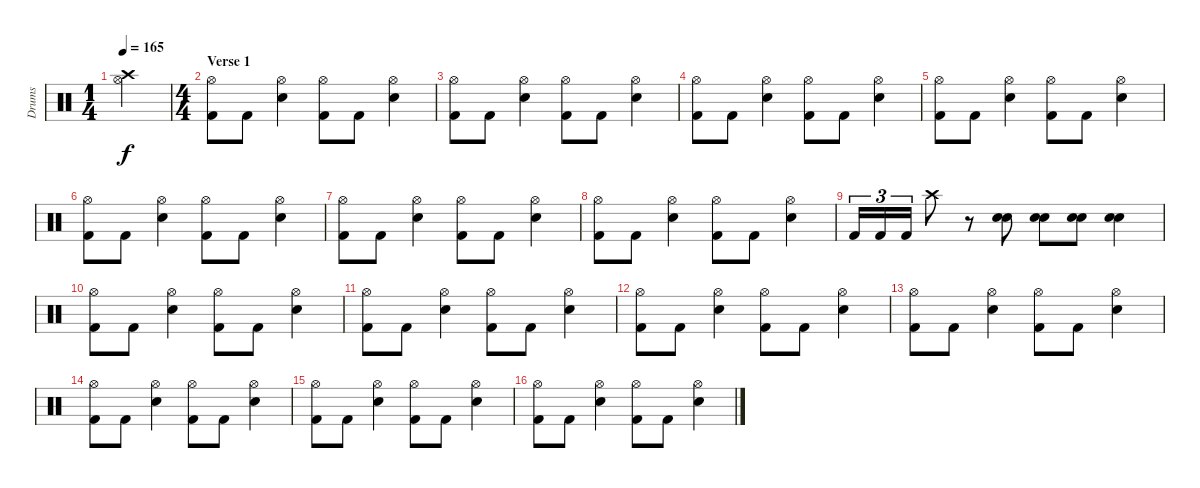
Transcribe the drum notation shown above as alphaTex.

\track ("Drums" "Drums") {instrument percussion}
\staff {score}
\articulation defaults
\ts (1 4)
\tempo 165
\clef neutral
\ks c
("Crash high (hit)" "Hi-Hat (open)").4{dy f} |
\ts (4 4)
\section ("" "Verse 1")
("Hi-Hat (open)" "Kick (hit) 2").8 "Kick (hit) 2".8 ("Hi-Hat (open)" "Snare (hit) 2").4 ("Hi-Hat (open)" "Kick (hit) 2").8 "Kick (hit) 2".8 ("Hi-Hat (open)" "Snare (hit) 2").4 |
("Hi-Hat (open)" "Kick (hit) 2").8 "Kick (hit) 2".8 ("Hi-Hat (open)" "Snare (hit) 2").4 ("Hi-Hat (open)" "Kick (hit) 2").8 "Kick (hit) 2".8 ("Hi-Hat (open)" "Snare (hit) 2").4 |
("Hi-Hat (open)" "Kick (hit) 2").8 "Kick (hit) 2".8 ("Hi-Hat (open)" "Snare (hit) 2").4 ("Hi-Hat (open)" "Kick (hit) 2").8 "Kick (hit) 2".8 ("Hi-Hat (open)" "Snare (hit) 2").4 |
("Hi-Hat (open)" "Kick (hit) 2").8 "Kick (hit) 2".8 ("Hi-Hat (open)" "Snare (hit) 2").4 ("Hi-Hat (open)" "Kick (hit) 2").8 "Kick (hit) 2".8 ("Hi-Hat (open)" "Snare (hit) 2").4 |
("Hi-Hat (open)" "Kick (hit) 2").8 "Kick (hit) 2".8 ("Hi-Hat (open)" "Snare (hit) 2").4 ("Hi-Hat (open)" "Kick (hit) 2").8 "Kick (hit) 2".8 ("Hi-Hat (open)" "Snare (hit) 2").4 |
("Hi-Hat (open)" "Kick (hit) 2").8 "Kick (hit) 2".8 ("Hi-Hat (open)" "Snare (hit) 2").4 ("Hi-Hat (open)" "Kick (hit) 2").8 "Kick (hit) 2".8 ("Hi-Hat (open)" "Snare (hit) 2").4 |
("Hi-Hat (open)" "Kick (hit) 2").8 "Kick (hit) 2".8 ("Hi-Hat (open)" "Snare (hit) 2").4 ("Hi-Hat (open)" "Kick (hit) 2").8 "Kick (hit) 2".8 ("Hi-Hat (open)" "Snare (hit) 2").4 |
"Kick (hit) 2".16{tu (3 2)} "Kick (hit) 2".16{tu (3 2)} "Kick (hit) 2".16{tu (3 2)} "Crash high (hit)".8 r.8 ("Snare (hit) 2" "Snare (hit) 2").8 ("Snare (hit) 2" "Snare (hit) 2").8 ("Snare (hit) 2" "Snare (hit) 2").8 ("Snare (hit) 2" "Snare (hit) 2").4 |
("Hi-Hat (open)" "Kick (hit) 2").8 "Kick (hit) 2".8 ("Hi-Hat (open)" "Snare (hit) 2").4 ("Hi-Hat (open)" "Kick (hit) 2").8 "Kick (hit) 2".8 ("Hi-Hat (open)" "Snare (hit) 2").4 |
("Hi-Hat (open)" "Kick (hit) 2").8 "Kick (hit) 2".8 ("Hi-Hat (open)" "Snare (hit) 2").4 ("Hi-Hat (open)" "Kick (hit) 2").8 "Kick (hit) 2".8 ("Hi-Hat (open)" "Snare (hit) 2").4 |
("Hi-Hat (open)" "Kick (hit) 2").8 "Kick (hit) 2".8 ("Hi-Hat (open)" "Snare (hit) 2").4 ("Hi-Hat (open)" "Kick (hit) 2").8 "Kick (hit) 2".8 ("Hi-Hat (open)" "Snare (hit) 2").4 |
("Hi-Hat (open)" "Kick (hit) 2").8 "Kick (hit) 2".8 ("Hi-Hat (open)" "Snare (hit) 2").4 ("Hi-Hat (open)" "Kick (hit) 2").8 "Kick (hit) 2".8 ("Hi-Hat (open)" "Snare (hit) 2").4 |
("Hi-Hat (open)" "Kick (hit) 2").8 "Kick (hit) 2".8 ("Hi-Hat (open)" "Snare (hit) 2").4 ("Hi-Hat (open)" "Kick (hit) 2").8 "Kick (hit) 2".8 ("Hi-Hat (open)" "Snare (hit) 2").4 |
("Hi-Hat (open)" "Kick (hit) 2").8 "Kick (hit) 2".8 ("Hi-Hat (open)" "Snare (hit) 2").4 ("Hi-Hat (open)" "Kick (hit) 2").8 "Kick (hit) 2".8 ("Hi-Hat (open)" "Snare (hit) 2").4 |
("Hi-Hat (open)" "Kick (hit) 2").8 "Kick (hit) 2".8 ("Hi-Hat (open)" "Snare (hit) 2").4 ("Hi-Hat (open)" "Kick (hit) 2").8 "Kick (hit) 2".8 ("Hi-Hat (open)" "Snare (hit) 2").4
